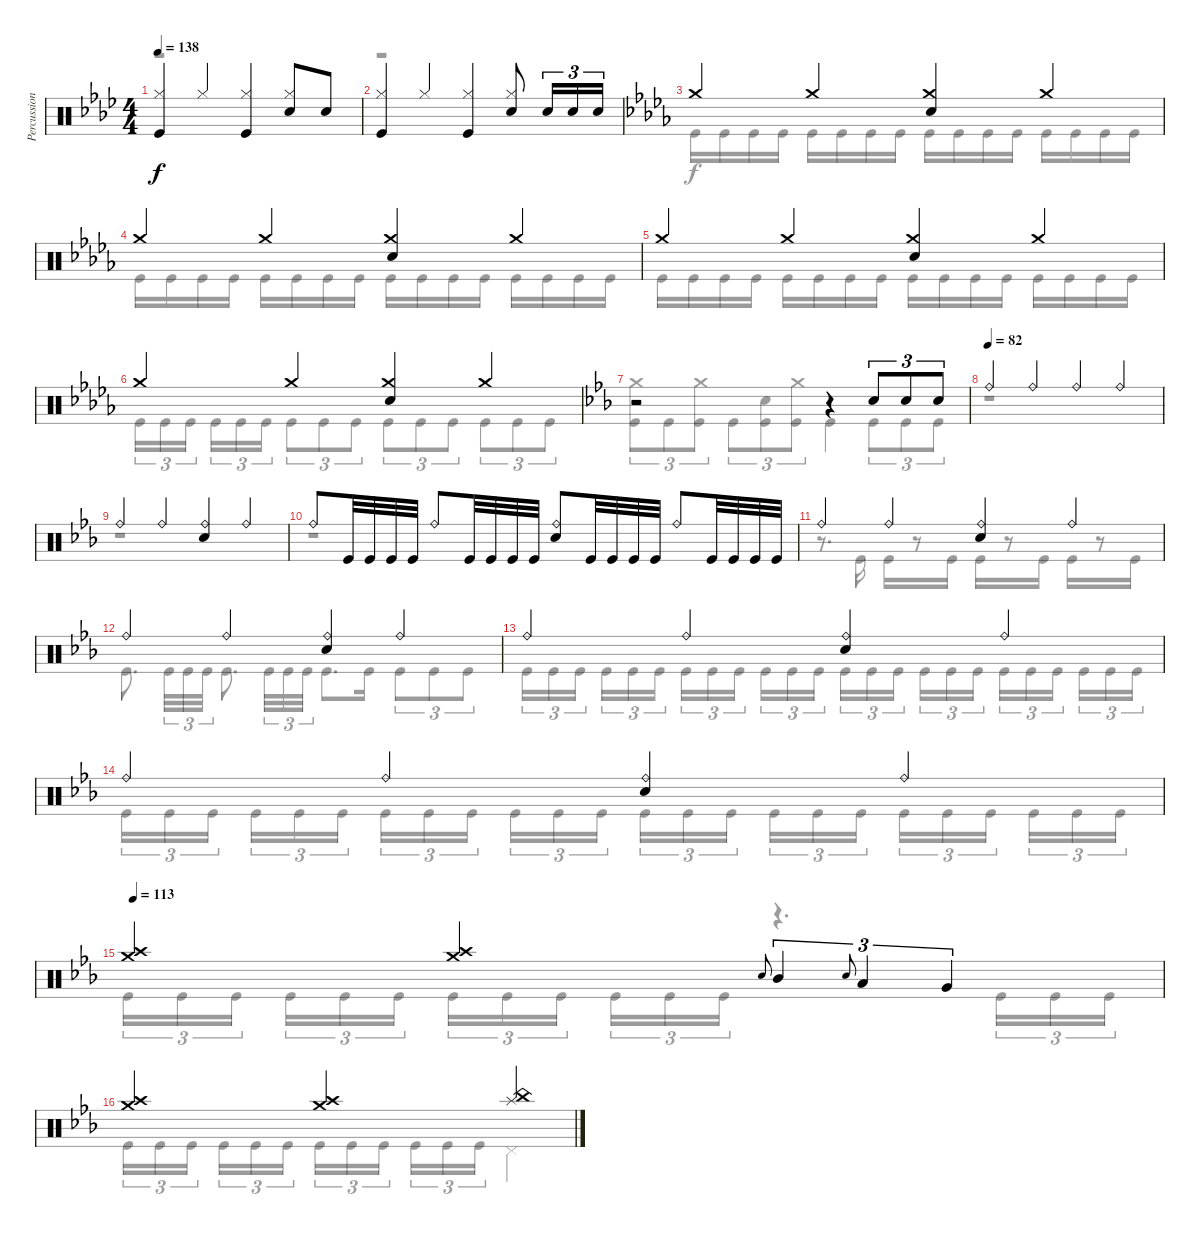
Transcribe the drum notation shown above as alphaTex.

\track ("Percussion" "Percussion") {instrument percussion}
\staff {score}
\articulation defaults
\voice
\ts (4 4)
\tempo 138
\clef neutral
\ks ab
("Hi-Hat (closed)" "Kick (hit)").4{dy f} "Hi-Hat (closed)".4 ("Hi-Hat (closed)" "Kick (hit)").4 ("Hi-Hat (closed)" "Snare (hit) 2").8 "Electric Snare (hit)".8 |
("Hi-Hat (closed)" "Kick (hit)").4 "Hi-Hat (closed)".4 ("Hi-Hat (closed)" "Kick (hit)").4 ("Hi-Hat (closed)" "Snare (hit) 2").8 "Electric Snare (hit)".16{tu (3 2)} "Electric Snare (hit)".16{tu (3 2)} "Electric Snare (hit)".16{tu (3 2)} |
\ks bbminor "Crash medium (hit)".4 "Crash medium (hit)".4
("Crash medium (hit)" "Snare (hit) 2").4 "Crash medium (hit)".4 |
"Crash medium (hit)".4 "Crash medium (hit)".4 ("Crash medium (hit)" "Snare (hit) 2").4 "Crash medium (hit)".4 |
"Crash medium (hit)".4 "Crash medium (hit)".4 ("Crash medium (hit)" "Snare (hit) 2").4 "Crash medium (hit)".4 |
"Crash medium (hit)".4 "Crash medium (hit)".4 ("Crash medium (hit)" "Snare (hit) 2").4 "Crash medium (hit)".4 |
\ks cminor
r.2 r.4 "Electric Snare (hit)".8{tu (3 2)} "Electric Snare (hit)".8{tu (3 2)} "Electric Snare (hit)".8{tu (3 2)} |
\tempo (82)
"Ride (bell)".4 "Ride (bell)".4 "Ride (bell)".4 "Ride (bell)".4 |
"Ride (bell)".4 "Ride (bell)".4 ("Ride (bell)" "Snare (hit) 2").4 "Ride (bell)".4 |
"Ride (bell)".8 "Kick (hit)".32 "Kick (hit)".32 "Kick (hit)".32 "Kick (hit)".32 "Ride (bell)".8 "Kick (hit)".32 "Kick (hit)".32 "Kick (hit)".32 "Kick (hit)".32 ("Ride (bell)" "Snare (hit) 2").8 "Kick (hit)".32 "Kick (hit)".32 "Kick (hit)".32 "Kick (hit)".32 "Ride (bell)".8 "Kick (hit)".32 "Kick (hit)".32 "Kick (hit)".32 "Kick (hit)".32 |
"Ride (bell)".4 "Ride (bell)".4 ("Ride (bell)" "Snare (hit) 2").4 "Ride (bell)".4 |
"Ride (bell)".4 "Ride (bell)".4 ("Ride (bell)" "Snare (hit) 2").4 "Ride (bell)".4 |
"Ride (bell)".4 "Ride (bell)".4 ("Ride (bell)" "Snare (hit) 2").4 "Ride (bell)".4 |
"Ride (bell)".4 "Ride (bell)".4 ("Ride (bell)" "Snare (hit) 2").4 "Ride (bell)".4 |
\tempo 113
("Crash medium (hit)" "Crash high (hit)").4 ("Crash medium (hit)" "Crash high (hit)").4 "Snare (hit) 2".8{gr onbeat} "Mid Tom (hit)".4{tu (3 2)} "Snare (hit) 2".8{gr onbeat} "Low Tom (hit)".4{tu (3 2)} "Very Low Tom (hit)".4{tu (3 2)} |
("Crash medium (hit)" "Crash high (hit)").4 ("Crash medium (hit)" "Crash high (hit)").4 ("Splash (hit)" "China (hit)").2
\voice
\clef neutral
\ottava regular
\simile none
\ks ab
r.1{dy f} |
r.1 |
\ks bbminor "Kick (hit)".16 "Kick (hit)".16 "Kick (hit)".16 "Kick (hit)".16 "Kick (hit)".16 "Kick (hit)".16 "Kick (hit)".16 "Kick (hit)".16 "Kick (hit)".16 "Kick (hit)".16 "Kick (hit)".16 "Kick (hit)".16 "Kick (hit)".16 "Kick (hit)".16 "Kick (hit)".16 "Kick (hit)".16
|
"Kick (hit)".16 "Kick (hit)".16 "Kick (hit)".16 "Kick (hit)".16 "Kick (hit)".16 "Kick (hit)".16 "Kick (hit)".16 "Kick (hit)".16 "Kick (hit)".16 "Kick (hit)".16 "Kick (hit)".16 "Kick (hit)".16 "Kick (hit)".16 "Kick (hit)".16 "Kick (hit)".16 "Kick (hit)".16 |
"Kick (hit)".16 "Kick (hit)".16 "Kick (hit)".16 "Kick (hit)".16 "Kick (hit)".16 "Kick (hit)".16 "Kick (hit)".16 "Kick (hit)".16 "Kick (hit)".16 "Kick (hit)".16 "Kick (hit)".16 "Kick (hit)".16 "Kick (hit)".16 "Kick (hit)".16 "Kick (hit)".16 "Kick (hit)".16 |
"Kick (hit)".16{tu (3 2)} "Kick (hit)".16{tu (3 2)} "Kick (hit)".16{tu (3 2) beam splitsecondary} "Kick (hit)".16{tu (3 2)} "Kick (hit)".16{tu (3 2)} "Kick (hit)".16{tu (3 2)} "Kick (hit)".8{tu (3 2)} "Kick (hit)".8{tu (3 2)} "Kick (hit)".8{tu (3 2)} "Kick (hit)".8{tu (3 2)} "Kick (hit)".8{tu (3 2)} "Kick (hit)".8{tu (3 2)} "Kick (hit)".8{tu (3 2)} "Kick (hit)".8{tu (3 2)} "Kick (hit)".8{tu (3 2)} |
\ks cminor
("Crash medium (hit)" "Kick (hit)").8{tu (3 2)} "Kick (hit)".8{tu (3 2)} ("Crash medium (hit)" "Kick (hit)").8{tu (3 2)} "Kick (hit)".8{tu (3 2)} ("Electric Snare (hit)" "Kick (hit)").8{tu (3 2)} ("Crash medium (hit)" "Kick (hit)").8{tu (3 2)} "Kick (hit)".4 "Kick (hit)".8{tu (3 2)} "Kick (hit)".8{tu (3 2)} "Kick (hit)".8{tu (3 2)} |
r.1 |
r.1 |
r.1 |
r.8{d} "Kick (hit)".16 "Kick (hit)".16 r.8 "Kick (hit)".16 "Kick (hit)".16 r.8 "Kick (hit)".16 "Kick (hit)".16 r.8 "Kick (hit)".16 |
"Kick (hit)".8{d} "Kick (hit)".32{tu (3 2)} "Kick (hit)".32{tu (3 2)} "Kick (hit)".32{tu (3 2)} "Kick (hit)".8{d} "Kick (hit)".32{tu (3 2)} "Kick (hit)".32{tu (3 2)} "Kick (hit)".32{tu (3 2)} "Kick (hit)".8{d} "Kick (hit)".16 "Kick (hit)".8{tu (3 2)} "Kick (hit)".8{tu (3 2)} "Kick (hit)".8{tu (3 2)} |
"Kick (hit)".16{tu (3 2)} "Kick (hit)".16{tu (3 2)} "Kick (hit)".16{tu (3 2) beam splitsecondary} "Kick (hit)".16{tu (3 2)} "Kick (hit)".16{tu (3 2)} "Kick (hit)".16{tu (3 2)} "Kick (hit)".16{tu (3 2)} "Kick (hit)".16{tu (3 2)} "Kick (hit)".16{tu (3 2) beam splitsecondary} "Kick (hit)".16{tu (3 2)} "Kick (hit)".16{tu (3 2)} "Kick (hit)".16{tu (3 2)} "Kick (hit)".16{tu (3 2)} "Kick (hit)".16{tu (3 2)} "Kick (hit)".16{tu (3 2) beam splitsecondary} "Kick (hit)".16{tu (3 2)} "Kick (hit)".16{tu (3 2)} "Kick (hit)".16{tu (3 2)} "Kick (hit)".16{tu (3 2)} "Kick (hit)".16{tu (3 2)} "Kick (hit)".16{tu (3 2) beam splitsecondary} "Kick (hit)".16{tu (3 2)} "Kick (hit)".16{tu (3 2)} "Kick (hit)".16{tu (3 2)} |
"Kick (hit)".16{tu (3 2)} "Kick (hit)".16{tu (3 2)} "Kick (hit)".16{tu (3 2) beam splitsecondary} "Kick (hit)".16{tu (3 2)} "Kick (hit)".16{tu (3 2)} "Kick (hit)".16{tu (3 2)} "Kick (hit)".16{tu (3 2)} "Kick (hit)".16{tu (3 2)} "Kick (hit)".16{tu (3 2) beam splitsecondary} "Kick (hit)".16{tu (3 2)} "Kick (hit)".16{tu (3 2)} "Kick (hit)".16{tu (3 2)} "Kick (hit)".16{tu (3 2)} "Kick (hit)".16{tu (3 2)} "Kick (hit)".16{tu (3 2) beam splitsecondary} "Kick (hit)".16{tu (3 2)} "Kick (hit)".16{tu (3 2)} "Kick (hit)".16{tu (3 2)} "Kick (hit)".16{tu (3 2)} "Kick (hit)".16{tu (3 2)} "Kick (hit)".16{tu (3 2) beam splitsecondary} "Kick (hit)".16{tu (3 2)} "Kick (hit)".16{tu (3 2)} "Kick (hit)".16{tu (3 2)} |
"Kick (hit)".16{tu (3 2)} "Kick (hit)".16{tu (3 2)} "Kick (hit)".16{tu (3 2) beam splitsecondary} "Kick (hit)".16{tu (3 2)} "Kick (hit)".16{tu (3 2)} "Kick (hit)".16{tu (3 2)} "Kick (hit)".16{tu (3 2)} "Kick (hit)".16{tu (3 2)} "Kick (hit)".16{tu (3 2) beam splitsecondary} "Kick (hit)".16{tu (3 2)} "Kick (hit)".16{tu (3 2)} "Kick (hit)".16{tu (3 2)} r.4{d} "Kick (hit)".16{tu (3 2)} "Kick (hit)".16{tu (3 2)} "Kick (hit)".16{tu (3 2)} |
"Kick (hit)".16{tu (3 2)} "Kick (hit)".16{tu (3 2)} "Kick (hit)".16{tu (3 2) beam splitsecondary} "Kick (hit)".16{tu (3 2)} "Kick (hit)".16{tu (3 2)} "Kick (hit)".16{tu (3 2)} "Kick (hit)".16{tu (3 2)} "Kick (hit)".16{tu (3 2)} "Kick (hit)".16{tu (3 2) beam splitsecondary} "Kick (hit)".16{tu (3 2)} "Kick (hit)".16{tu (3 2)} "Kick (hit)".16{tu (3 2)} "Pedal Hi-Hat (hit)".2
